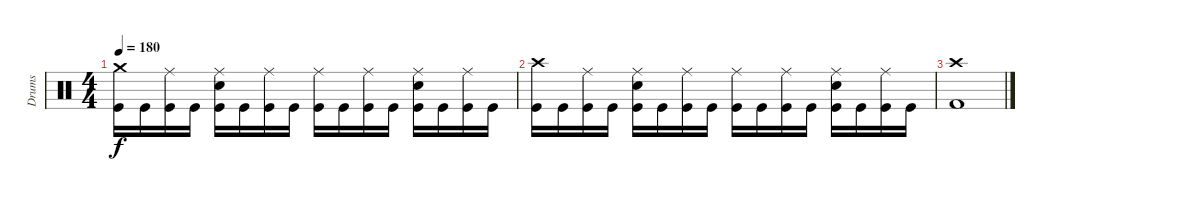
\track ("Drums" "Drums") {instrument percussion}
\staff {score}
\articulation defaults
\ts (4 4)
\tempo 180
\clef neutral
\ks c
("Crash medium (hit)" "Kick (hit)").16{dy f} "Kick (hit)".16 ("Ride (middle)" "Kick (hit)").16 "Kick (hit)".16 ("Ride (middle)" "Snare (hit) 2" "Kick (hit)").16 "Kick (hit)".16 ("Ride (middle)" "Kick (hit)").16 "Kick (hit)".16 ("Ride (middle)" "Kick (hit)").16 "Kick (hit)".16 ("Ride (middle)" "Kick (hit)").16 "Kick (hit)".16 ("Ride (middle)" "Snare (hit) 2" "Kick (hit)").16 "Kick (hit)".16 ("Ride (middle)" "Kick (hit)").16 "Kick (hit)".16 |
("Crash high (hit)" "Kick (hit)").16 "Kick (hit)".16 ("Ride (middle)" "Kick (hit)").16 "Kick (hit)".16 ("Ride (middle)" "Snare (hit) 2" "Kick (hit)").16 "Kick (hit)".16 ("Ride (middle)" "Kick (hit)").16 "Kick (hit)".16 ("Ride (middle)" "Kick (hit)").16 "Kick (hit)".16 ("Ride (middle)" "Kick (hit)").16 "Kick (hit)".16 ("Ride (middle)" "Snare (hit) 2" "Kick (hit)").16 "Kick (hit)".16 ("Ride (middle)" "Kick (hit)").16 "Kick (hit)".16 |
("Crash high (hit)" "Kick (hit) 2").1
